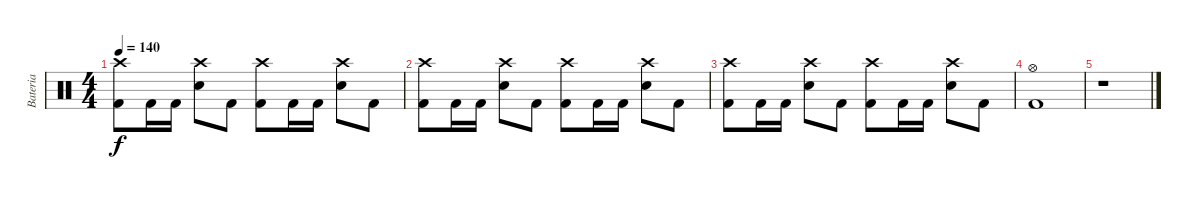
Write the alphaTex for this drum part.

\track ("Bateria" "Bateria") {instrument percussion}
\staff {score}
\articulation defaults
\ts (4 4)
\tempo 140
\clef neutral
\ks c
("Crash high (hit)" "Kick (hit) 2").8{dy f} "Kick (hit) 2".16 "Kick (hit) 2".16 ("Crash high (hit)" "Snare (hit) 2").8 "Kick (hit) 2".8 ("Crash high (hit)" "Kick (hit) 2").8 "Kick (hit) 2".16 "Kick (hit) 2".16 ("Crash high (hit)" "Snare (hit) 2").8 "Kick (hit) 2".8 |
("Crash high (hit)" "Kick (hit) 2").8 "Kick (hit) 2".16 "Kick (hit) 2".16 ("Crash high (hit)" "Snare (hit) 2").8 "Kick (hit) 2".8 ("Crash high (hit)" "Kick (hit) 2").8 "Kick (hit) 2".16 "Kick (hit) 2".16 ("Crash high (hit)" "Snare (hit) 2").8 "Kick (hit) 2".8 |
("Crash high (hit)" "Kick (hit) 2").8 "Kick (hit) 2".16 "Kick (hit) 2".16 ("Crash high (hit)" "Snare (hit) 2").8 "Kick (hit) 2".8 ("Crash high (hit)" "Kick (hit) 2").8 "Kick (hit) 2".16 "Kick (hit) 2".16 ("Crash high (hit)" "Snare (hit) 2").8 "Kick (hit) 2".8 |
("Hi-Hat (open)" "Kick (hit) 2").1 |
r.1
